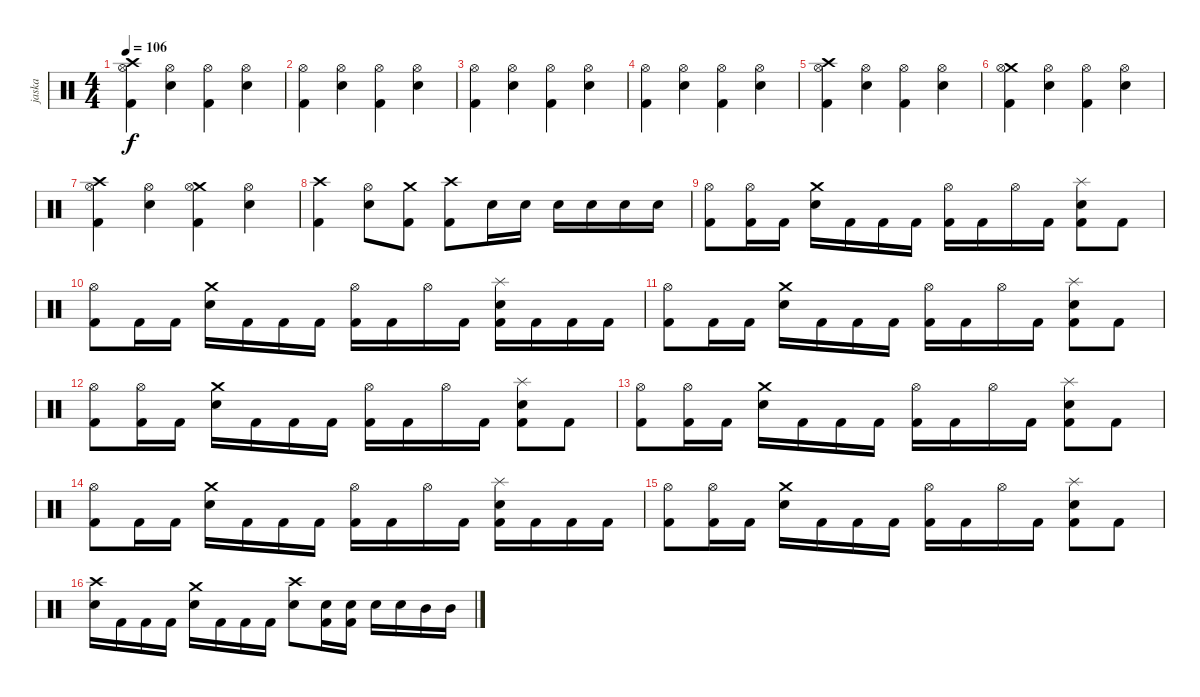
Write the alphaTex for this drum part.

\track ("jaska" "jaska") {instrument percussion}
\staff {score}
\articulation defaults
\ts (4 4)
\tempo 106
\clef neutral
\ks c
("Kick (hit) 2" "Crash high (hit)" "Hi-Hat (open)").4{dy f} ("Hi-Hat (open)" "Snare (hit) 2").4 ("Kick (hit) 2" "Hi-Hat (open)").4 ("Hi-Hat (open)" "Snare (hit) 2").4 |
("Kick (hit) 2" "Hi-Hat (open)").4 ("Hi-Hat (open)" "Snare (hit) 2").4 ("Kick (hit) 2" "Hi-Hat (open)").4 ("Hi-Hat (open)" "Snare (hit) 2").4 |
("Kick (hit) 2" "Hi-Hat (open)").4 ("Hi-Hat (open)" "Snare (hit) 2").4 ("Kick (hit) 2" "Hi-Hat (open)").4 ("Hi-Hat (open)" "Snare (hit) 2").4 |
("Kick (hit) 2" "Hi-Hat (open)").4 ("Hi-Hat (open)" "Snare (hit) 2").4 ("Kick (hit) 2" "Hi-Hat (open)").4 ("Hi-Hat (open)" "Snare (hit) 2").4 |
("Kick (hit) 2" "Crash high (hit)" "Hi-Hat (open)").4 ("Hi-Hat (open)" "Snare (hit) 2").4 ("Kick (hit) 2" "Hi-Hat (open)").4 ("Hi-Hat (open)" "Snare (hit) 2").4 |
("Kick (hit) 2" "Crash medium (hit)" "Hi-Hat (open)").4 ("Hi-Hat (open)" "Snare (hit) 2").4 ("Kick (hit) 2" "Hi-Hat (open)").4 ("Hi-Hat (open)" "Snare (hit) 2").4 |
("Kick (hit) 2" "Crash high (hit)" "Hi-Hat (open)").4 ("Hi-Hat (open)" "Snare (hit) 2").4 ("Kick (hit) 2" "Crash medium (hit)" "Hi-Hat (open)").4 ("Hi-Hat (open)" "Snare (hit) 2").4 |
("Kick (hit) 2" "Crash high (hit)").4 ("Hi-Hat (open)" "Snare (hit) 2").8 ("Kick (hit) 2" "Crash medium (hit)").8 ("Kick (hit) 2" "Crash high (hit)").8 "Snare (hit) 2".16 "Snare (hit) 2".16 "Snare (hit) 2".16 "Snare (hit) 2".16 "Snare (hit) 2".16 "Snare (hit) 2".16 |
("Kick (hit) 2" "Hi-Hat (open)").8 ("Kick (hit) 2" "Hi-Hat (open)").16 "Kick (hit) 2".16 ("Crash medium (hit)" "Snare (hit) 2").16 "Kick (hit) 2".16 "Kick (hit) 2".16 "Kick (hit) 2".16 ("Kick (hit) 2" "Hi-Hat (open)").16 "Kick (hit) 2".16 "Hi-Hat (open)".16 "Kick (hit) 2".16 ("Kick (hit) 2" "Splash (hit)" "Snare (hit) 2").8 "Kick (hit) 2".8 |
("Kick (hit) 2" "Hi-Hat (open)").8 "Kick (hit) 2".16 "Kick (hit) 2".16 ("Crash medium (hit)" "Snare (hit) 2").16 "Kick (hit) 2".16 "Kick (hit) 2".16 "Kick (hit) 2".16 ("Kick (hit) 2" "Hi-Hat (open)").16 "Kick (hit) 2".16 "Hi-Hat (open)".16 "Kick (hit) 2".16 ("Kick (hit) 2" "Splash (hit)" "Snare (hit) 2").16 "Kick (hit) 2".16 "Kick (hit) 2".16 "Kick (hit) 2".16 |
("Kick (hit) 2" "Hi-Hat (open)").8 "Kick (hit) 2".16 "Kick (hit) 2".16 ("Crash medium (hit)" "Snare (hit) 2").16 "Kick (hit) 2".16 "Kick (hit) 2".16 "Kick (hit) 2".16 ("Kick (hit) 2" "Hi-Hat (open)").16 "Kick (hit) 2".16 "Hi-Hat (open)".16 "Kick (hit) 2".16 ("Kick (hit) 2" "Splash (hit)" "Snare (hit) 2").8 "Kick (hit) 2".8 |
("Kick (hit) 2" "Hi-Hat (open)").8 ("Kick (hit) 2" "Hi-Hat (open)").16 "Kick (hit) 2".16 ("Crash medium (hit)" "Snare (hit) 2").16 "Kick (hit) 2".16 "Kick (hit) 2".16 "Kick (hit) 2".16 ("Kick (hit) 2" "Hi-Hat (open)").16 "Kick (hit) 2".16 "Hi-Hat (open)".16 "Kick (hit) 2".16 ("Kick (hit) 2" "Splash (hit)" "Snare (hit) 2").8 "Kick (hit) 2".8 |
("Kick (hit) 2" "Hi-Hat (open)").8 ("Kick (hit) 2" "Hi-Hat (open)").16 "Kick (hit) 2".16 ("Crash medium (hit)" "Snare (hit) 2").16 "Kick (hit) 2".16 "Kick (hit) 2".16 "Kick (hit) 2".16 ("Kick (hit) 2" "Hi-Hat (open)").16 "Kick (hit) 2".16 "Hi-Hat (open)".16 "Kick (hit) 2".16 ("Kick (hit) 2" "Splash (hit)" "Snare (hit) 2").8 "Kick (hit) 2".8 |
("Kick (hit) 2" "Hi-Hat (open)").8 "Kick (hit) 2".16 "Kick (hit) 2".16 ("Crash medium (hit)" "Snare (hit) 2").16 "Kick (hit) 2".16 "Kick (hit) 2".16 "Kick (hit) 2".16 ("Kick (hit) 2" "Hi-Hat (open)").16 "Kick (hit) 2".16 "Hi-Hat (open)".16 "Kick (hit) 2".16 ("Kick (hit) 2" "Splash (hit)" "Snare (hit) 2").16 "Kick (hit) 2".16 "Kick (hit) 2".16 "Kick (hit) 2".16 |
("Kick (hit) 2" "Hi-Hat (open)").8 ("Kick (hit) 2" "Hi-Hat (open)").16 "Kick (hit) 2".16 ("Crash medium (hit)" "Snare (hit) 2").16 "Kick (hit) 2".16 "Kick (hit) 2".16 "Kick (hit) 2".16 ("Kick (hit) 2" "Hi-Hat (open)").16 "Kick (hit) 2".16 "Hi-Hat (open)".16 "Kick (hit) 2".16 ("Kick (hit) 2" "Splash (hit)" "Snare (hit) 2").8 "Kick (hit) 2".8 |
("Crash high (hit)" "Snare (hit) 2").16 "Kick (hit) 2".16 "Kick (hit) 2".16 "Kick (hit) 2".16 ("Crash medium (hit)" "Snare (hit) 2").16 "Kick (hit) 2".16 "Kick (hit) 2".16 "Kick (hit) 2".16 ("Crash high (hit)" "Snare (hit) 2").8 ("Kick (hit) 2" "Snare (hit) 2").16 ("Kick (hit) 2" "Snare (hit) 2").16 "Snare (hit) 2".16 "Snare (hit) 2".16 "Mid Tom (hit)".16 "Mid Tom (hit)".16
